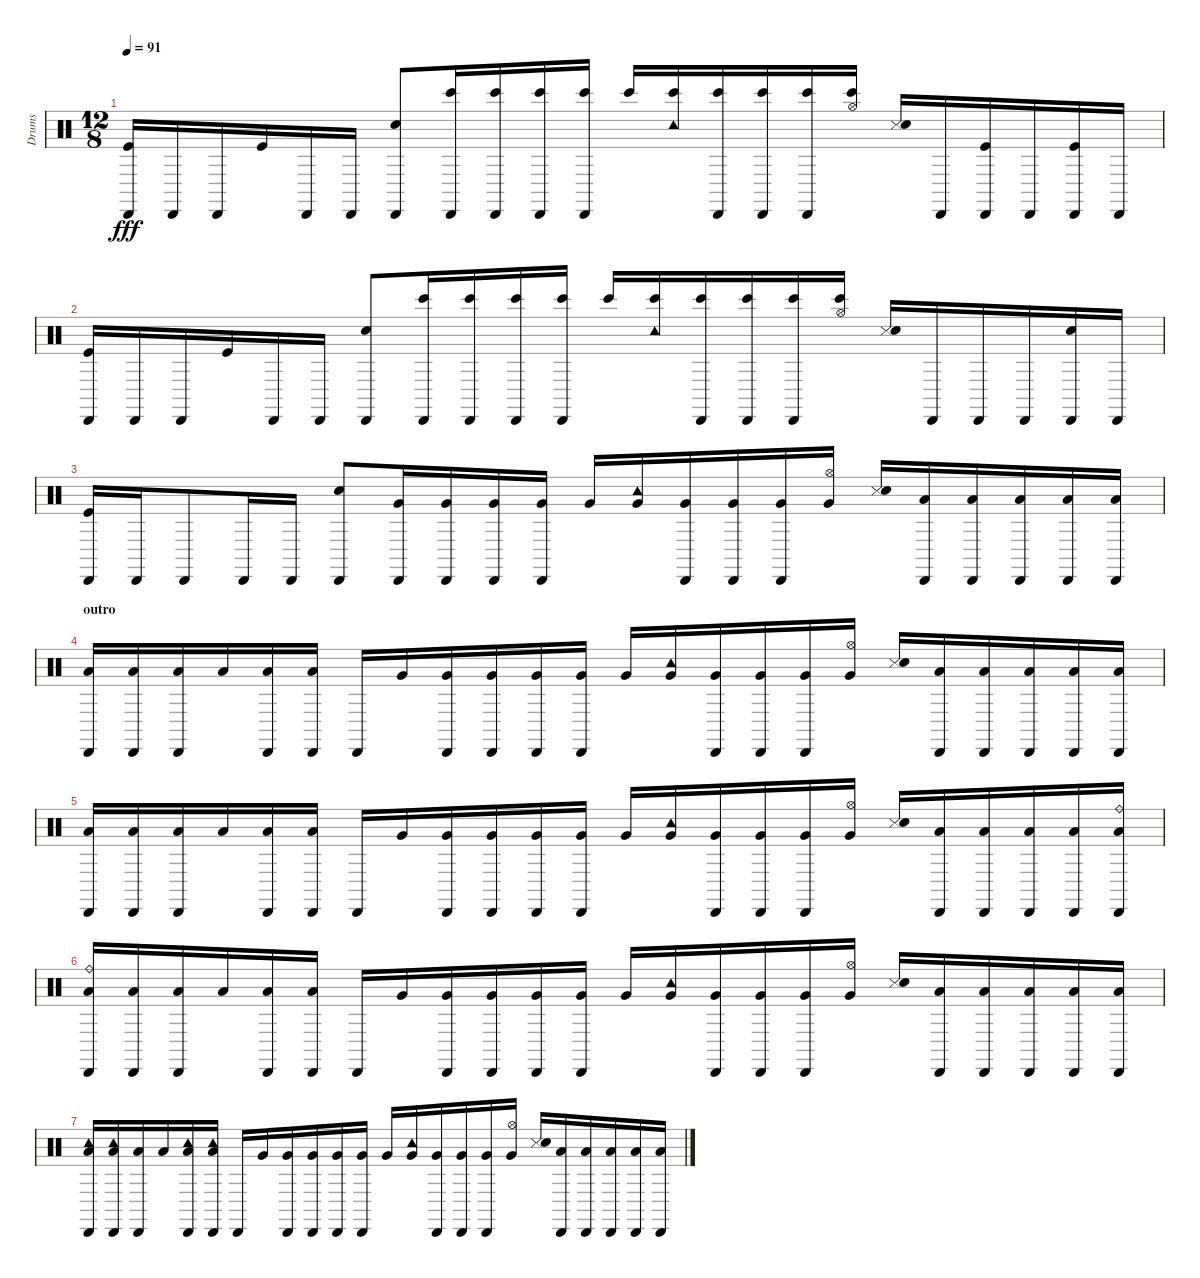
\track ("Drums" "Drums") {instrument percussion}
\staff {score}
\articulation defaults
\ts (12 8)
\tempo 91
\clef neutral
\ks c
("Cabasa (hit)" "Kick (hit)").16{dy fff} "Cabasa (hit)".16 "Cabasa (hit)".16 "Kick (hit)".16 "Cabasa (hit)".16 "Cabasa (hit)".16 ("Cabasa (hit)" "Snare (hit) 2").8 ("Cabasa (hit)" "Bongo High (hit)").16 ("Cabasa (hit)" "Bongo High (hit)").16 ("Cabasa (hit)" "Bongo High (hit)").16 ("Cabasa (hit)" "Bongo High (hit)").16 "Bongo High (hit)".16 ("Tambourine (hit)" "Bongo High (hit)").16 ("Cabasa (hit)" "Bongo High (hit)").16 ("Cabasa (hit)" "Bongo High (hit)").16 ("Cabasa (hit)" "Bongo High (hit)").16 ("Hi-Hat (open)" "Bongo High (hit)").16 ("Snare (side stick) 3" "Electric Snare (hit)").16 "Cabasa (hit)".16 ("Cabasa (hit)" "Kick (hit)").16 "Cabasa (hit)".16 ("Cabasa (hit)" "Kick (hit)").16 "Cabasa (hit)".16 |
("Cabasa (hit)" "Kick (hit)").16 "Cabasa (hit)".16 "Cabasa (hit)".16 "Kick (hit)".16 "Cabasa (hit)".16 "Cabasa (hit)".16 ("Cabasa (hit)" "Snare (hit) 2").8 ("Cabasa (hit)" "Bongo High (hit)").16 ("Cabasa (hit)" "Bongo High (hit)").16 ("Cabasa (hit)" "Bongo High (hit)").16 ("Cabasa (hit)" "Bongo High (hit)").16 "Bongo High (hit)".16 ("Tambourine (hit)" "Bongo High (hit)").16 ("Cabasa (hit)" "Bongo High (hit)").16 ("Cabasa (hit)" "Bongo High (hit)").16 ("Cabasa (hit)" "Bongo High (hit)").16 ("Hi-Hat (open)" "Bongo High (hit)").16 ("Snare (side stick) 3" "Electric Snare (hit)").16 "Cabasa (hit)".16 "Cabasa (hit)".16 "Cabasa (hit)".16 ("Cabasa (hit)" "Snare (hit) 2").16 "Cabasa (hit)".16 |
("Cabasa (hit)" "Kick (hit)").16 "Cabasa (hit)".16 "Cabasa (hit)".8 "Cabasa (hit)".16 "Cabasa (hit)".16 ("Cabasa (hit)" "Snare (hit) 2").8 ("Cabasa (hit)" "Very Low Tom (hit)").16 ("Cabasa (hit)" "Very Low Tom (hit)").16 ("Cabasa (hit)" "Very Low Tom (hit)").16 ("Cabasa (hit)" "Very Low Tom (hit)").16 "Very Low Tom (hit)".16 ("Tambourine (hit)" "Very Low Tom (hit)").16 ("Cabasa (hit)" "Very Low Tom (hit)").16 ("Cabasa (hit)" "Very Low Tom (hit)").16 ("Cabasa (hit)" "Very Low Tom (hit)").16 ("Hi-Hat (open)" "Very Low Tom (hit)").16 ("Snare (side stick) 3" "Electric Snare (hit)").16 ("Cabasa (hit)" "Low Tom (hit)").16 ("Cabasa (hit)" "Low Tom (hit)").16 ("Cabasa (hit)" "Low Tom (hit)").16 ("Cabasa (hit)" "Low Tom (hit)").16 ("Cabasa (hit)" "Low Tom (hit)").16 |
\section ("" "outro")
("Cabasa (hit)" "Low Tom (hit)").16 ("Cabasa (hit)" "Low Tom (hit)").16 ("Cabasa (hit)" "Low Tom (hit)").16 "Low Tom (hit)".16 ("Cabasa (hit)" "Low Tom (hit)").16 ("Cabasa (hit)" "Low Tom (hit)").16 "Cabasa (hit)".16 "Very Low Tom (hit)".16 ("Cabasa (hit)" "Very Low Tom (hit)").16 ("Cabasa (hit)" "Very Low Tom (hit)").16 ("Cabasa (hit)" "Very Low Tom (hit)").16 ("Cabasa (hit)" "Very Low Tom (hit)").16 "Very Low Tom (hit)".16 ("Tambourine (hit)" "Very Low Tom (hit)").16 ("Cabasa (hit)" "Very Low Tom (hit)").16 ("Cabasa (hit)" "Very Low Tom (hit)").16 ("Cabasa (hit)" "Very Low Tom (hit)").16 ("Hi-Hat (open)" "Very Low Tom (hit)").16 ("Snare (side stick) 3" "Electric Snare (hit)").16 ("Cabasa (hit)" "Low Tom (hit)").16 ("Cabasa (hit)" "Low Tom (hit)").16 ("Cabasa (hit)" "Low Tom (hit)").16 ("Cabasa (hit)" "Low Tom (hit)").16 ("Cabasa (hit)" "Low Tom (hit)").16 |
("Cabasa (hit)" "Low Tom (hit)").16 ("Cabasa (hit)" "Low Tom (hit)").16 ("Cabasa (hit)" "Low Tom (hit)").16 "Low Tom (hit)".16 ("Cabasa (hit)" "Low Tom (hit)").16 ("Cabasa (hit)" "Low Tom (hit)").16 "Cabasa (hit)".16 "Very Low Tom (hit)".16 ("Cabasa (hit)" "Very Low Tom (hit)").16 ("Cabasa (hit)" "Very Low Tom (hit)").16 ("Cabasa (hit)" "Very Low Tom (hit)").16 ("Cabasa (hit)" "Very Low Tom (hit)").16 "Very Low Tom (hit)".16 ("Tambourine (hit)" "Very Low Tom (hit)").16 ("Cabasa (hit)" "Very Low Tom (hit)").16 ("Cabasa (hit)" "Very Low Tom (hit)").16 ("Cabasa (hit)" "Very Low Tom (hit)").16 ("Hi-Hat (open)" "Very Low Tom (hit)").16 ("Snare (side stick) 3" "Electric Snare (hit)").16 ("Cabasa (hit)" "Low Tom (hit)").16 ("Cabasa (hit)" "Low Tom (hit)").16 ("Cabasa (hit)" "Low Tom (hit)").16 ("Cabasa (hit)" "Low Tom (hit)").16 ("Cabasa (hit)" "Ride (bell)" "Low Tom (hit)").16 |
("Cabasa (hit)" "Ride (bell)" "Low Tom (hit)").16 ("Cabasa (hit)" "Low Tom (hit)").16 ("Cabasa (hit)" "Low Tom (hit)").16 "Low Tom (hit)".16 ("Cabasa (hit)" "Low Tom (hit)").16 ("Cabasa (hit)" "Low Tom (hit)").16 "Cabasa (hit)".16 "Very Low Tom (hit)".16 ("Cabasa (hit)" "Very Low Tom (hit)").16 ("Cabasa (hit)" "Very Low Tom (hit)").16 ("Cabasa (hit)" "Very Low Tom (hit)").16 ("Cabasa (hit)" "Very Low Tom (hit)").16 "Very Low Tom (hit)".16 ("Tambourine (hit)" "Very Low Tom (hit)").16 ("Cabasa (hit)" "Very Low Tom (hit)").16 ("Cabasa (hit)" "Very Low Tom (hit)").16 ("Cabasa (hit)" "Very Low Tom (hit)").16 ("Hi-Hat (open)" "Very Low Tom (hit)").16 ("Snare (side stick) 3" "Electric Snare (hit)").16 ("Cabasa (hit)" "Low Tom (hit)").16 ("Cabasa (hit)" "Low Tom (hit)").16 ("Cabasa (hit)" "Low Tom (hit)").16 ("Cabasa (hit)" "Low Tom (hit)").16 ("Cabasa (hit)" "Low Tom (hit)").16 |
("Cabasa (hit)" "Tambourine (hit)" "Low Tom (hit)").16 ("Cabasa (hit)" "Tambourine (hit)" "Low Tom (hit)").16 ("Cabasa (hit)" "Low Tom (hit)").16 "Low Tom (hit)".16 ("Cabasa (hit)" "Tambourine (hit)" "Low Tom (hit)").16 ("Cabasa (hit)" "Tambourine (hit)" "Low Tom (hit)").16 "Cabasa (hit)".16 "Very Low Tom (hit)".16 ("Cabasa (hit)" "Very Low Tom (hit)").16 ("Cabasa (hit)" "Very Low Tom (hit)").16 ("Cabasa (hit)" "Very Low Tom (hit)").16 ("Cabasa (hit)" "Very Low Tom (hit)").16 "Very Low Tom (hit)".16 ("Tambourine (hit)" "Very Low Tom (hit)").16 ("Cabasa (hit)" "Very Low Tom (hit)").16 ("Cabasa (hit)" "Very Low Tom (hit)").16 ("Cabasa (hit)" "Very Low Tom (hit)").16 ("Hi-Hat (open)" "Very Low Tom (hit)").16 ("Snare (side stick) 3" "Electric Snare (hit)").16 ("Cabasa (hit)" "Low Tom (hit)").16 ("Cabasa (hit)" "Low Tom (hit)").16 ("Cabasa (hit)" "Low Tom (hit)").16 ("Cabasa (hit)" "Low Tom (hit)").16 ("Cabasa (hit)" "Low Tom (hit)").16
